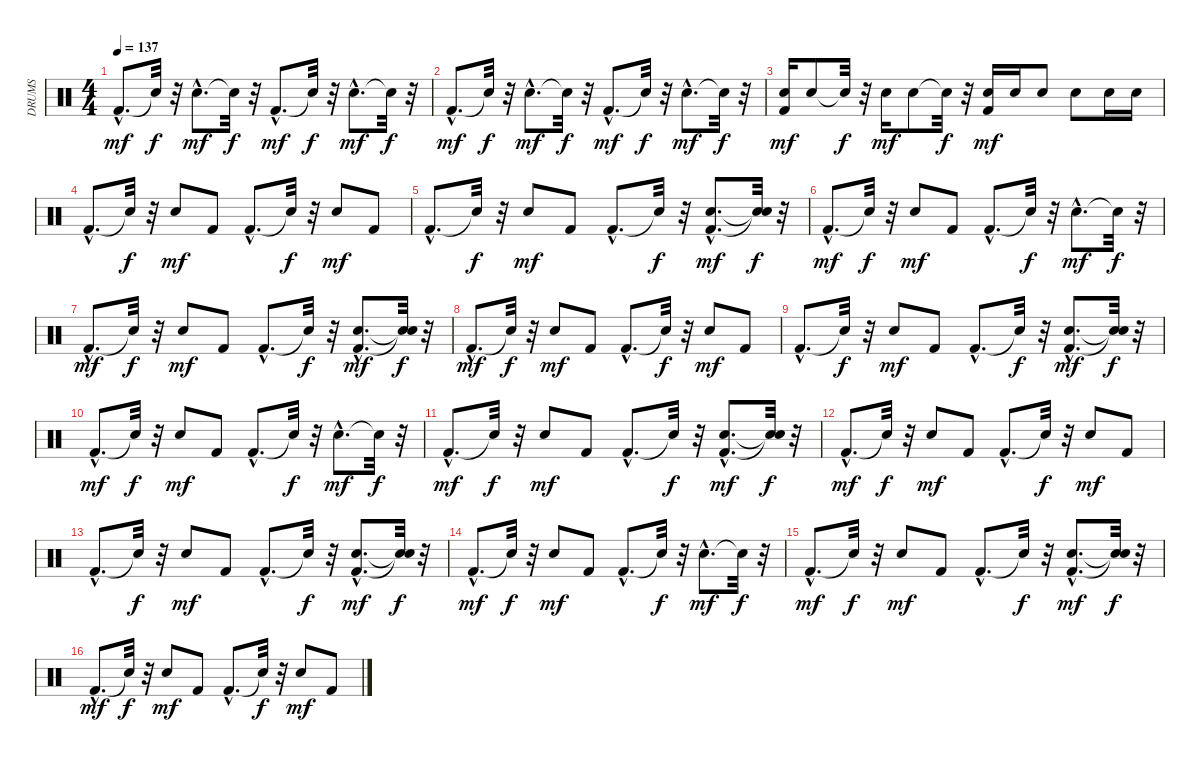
\track ("DRUMS" "DRUMS") {instrument percussion}
\staff {score}
\articulation defaults
\ts (4 4)
\tempo 137
\clef neutral
\ks c "Kick (hit) 2"{hac}.8{d dy mf} "Snare (hit)"{t}.32{dy f}
r.32 "Snare (hit) 2"{hac}.8{d dy mf} "Snare (hit)"{t}.32{dy f} r.32 "Kick (hit) 2"{hac}.8{d dy mf} "Snare (hit)"{t}.32{dy f} r.32 "Snare (hit) 2"{hac}.8{d dy mf} "Snare (hit)"{t}.32{dy f} r.32 |
"Kick (hit) 2"{hac}.8{d dy mf} "Snare (hit)"{t}.32{dy f} r.32 "Snare (hit) 2"{hac}.8{d dy mf} "Snare (hit)"{t}.32{dy f} r.32 "Kick (hit) 2"{hac}.8{d dy mf} "Snare (hit)"{t}.32{dy f} r.32 "Snare (hit) 2"{hac}.8{d dy mf} "Snare (hit)"{t}.32{dy f} r.32 |
("Kick (hit) 2" "Snare (hit) 2").16{dy mf} "Snare (hit) 2".8 "Snare (hit)"{t}.32{dy f} r.32 "Snare (hit) 2".16{dy mf} "Snare (hit) 2".8 "Snare (hit)"{t}.32{dy f} r.32 ("Kick (hit) 2" "Snare (hit) 2").16{dy mf} "Snare (hit) 2".16 "Snare (hit) 2".8 "Snare (hit) 2".8 "Snare (hit) 2".16 "Snare (hit) 2".16 |
"Kick (hit) 2"{hac}.8{d} "Snare (hit)"{t}.32{dy f} r.32 "Snare (hit) 2".8{dy mf} "Kick (hit) 2".8 "Kick (hit) 2"{hac}.8{d} "Snare (hit)"{t}.32{dy f} r.32 "Snare (hit) 2".8{dy mf} "Kick (hit) 2".8 |
"Kick (hit) 2"{hac}.8{d} "Snare (hit)"{t}.32{dy f} r.32 "Snare (hit) 2".8{dy mf} "Kick (hit) 2".8 "Kick (hit) 2"{hac}.8{d} "Snare (hit)"{t}.32{dy f} r.32 ("Kick (hit) 2"{hac} "Snare (hit) 2"{hac}).8{d dy mf} ("Snare (hit)"{t} "Snare (hit)"{t}).32{dy f} r.32 |
"Kick (hit) 2"{hac}.8{d dy mf} "Snare (hit)"{t}.32{dy f} r.32 "Snare (hit) 2".8{dy mf} "Kick (hit) 2".8 "Kick (hit) 2"{hac}.8{d} "Snare (hit)"{t}.32{dy f} r.32 "Snare (hit) 2"{hac}.8{d dy mf} "Snare (hit)"{t}.32{dy f} r.32 |
"Kick (hit) 2"{hac}.8{d dy mf} "Snare (hit)"{t}.32{dy f} r.32 "Snare (hit) 2".8{dy mf} "Kick (hit) 2".8 "Kick (hit) 2"{hac}.8{d} "Snare (hit)"{t}.32{dy f} r.32 ("Snare (hit) 2"{hac} "Kick (hit) 2"{hac}).8{d dy mf} ("Snare (hit)"{t} "Snare (hit)"{t}).32{dy f} r.32 |
"Kick (hit) 2"{hac}.8{d dy mf} "Snare (hit)"{t}.32{dy f} r.32 "Snare (hit) 2".8{dy mf} "Kick (hit) 2".8 "Kick (hit) 2"{hac}.8{d} "Snare (hit)"{t}.32{dy f} r.32 "Snare (hit) 2".8{dy mf} "Kick (hit) 2".8 |
"Kick (hit) 2"{hac}.8{d} "Snare (hit)"{t}.32{dy f} r.32 "Snare (hit) 2".8{dy mf} "Kick (hit) 2".8 "Kick (hit) 2"{hac}.8{d} "Snare (hit)"{t}.32{dy f} r.32 ("Kick (hit) 2"{hac} "Snare (hit) 2"{hac}).8{d dy mf} ("Snare (hit)"{t} "Snare (hit)"{t}).32{dy f} r.32 |
"Kick (hit) 2"{hac}.8{d dy mf} "Snare (hit)"{t}.32{dy f} r.32 "Snare (hit) 2".8{dy mf} "Kick (hit) 2".8 "Kick (hit) 2"{hac}.8{d} "Snare (hit)"{t}.32{dy f} r.32 "Snare (hit) 2"{hac}.8{d dy mf} "Snare (hit)"{t}.32{dy f} r.32 |
"Kick (hit) 2"{hac}.8{d dy mf} "Snare (hit)"{t}.32{dy f} r.32 "Snare (hit) 2".8{dy mf} "Kick (hit) 2".8 "Kick (hit) 2"{hac}.8{d} "Snare (hit)"{t}.32{dy f} r.32 ("Snare (hit) 2"{hac} "Kick (hit) 2"{hac}).8{d dy mf} ("Snare (hit)"{t} "Snare (hit)"{t}).32{dy f} r.32 |
"Kick (hit) 2"{hac}.8{d dy mf} "Snare (hit)"{t}.32{dy f} r.32 "Snare (hit) 2".8{dy mf} "Kick (hit) 2".8 "Kick (hit) 2"{hac}.8{d} "Snare (hit)"{t}.32{dy f} r.32 "Snare (hit) 2".8{dy mf} "Kick (hit) 2".8 |
"Kick (hit) 2"{hac}.8{d} "Snare (hit)"{t}.32{dy f} r.32 "Snare (hit) 2".8{dy mf} "Kick (hit) 2".8 "Kick (hit) 2"{hac}.8{d} "Snare (hit)"{t}.32{dy f} r.32 ("Kick (hit) 2"{hac} "Snare (hit) 2"{hac}).8{d dy mf} ("Snare (hit)"{t} "Snare (hit)"{t}).32{dy f} r.32 |
"Kick (hit) 2"{hac}.8{d dy mf} "Snare (hit)"{t}.32{dy f} r.32 "Snare (hit) 2".8{dy mf} "Kick (hit) 2".8 "Kick (hit) 2"{hac}.8{d} "Snare (hit)"{t}.32{dy f} r.32 "Snare (hit) 2"{hac}.8{d dy mf} "Snare (hit)"{t}.32{dy f} r.32 |
"Kick (hit) 2"{hac}.8{d dy mf} "Snare (hit)"{t}.32{dy f} r.32 "Snare (hit) 2".8{dy mf} "Kick (hit) 2".8 "Kick (hit) 2"{hac}.8{d} "Snare (hit)"{t}.32{dy f} r.32 ("Snare (hit) 2"{hac} "Kick (hit) 2"{hac}).8{d dy mf} ("Snare (hit)"{t} "Snare (hit)"{t}).32{dy f} r.32 |
"Kick (hit) 2"{hac}.8{d dy mf} "Snare (hit)"{t}.32{dy f} r.32 "Snare (hit) 2".8{dy mf} "Kick (hit) 2".8 "Kick (hit) 2"{hac}.8{d} "Snare (hit)"{t}.32{dy f} r.32 "Snare (hit) 2".8{dy mf} "Kick (hit) 2".8
